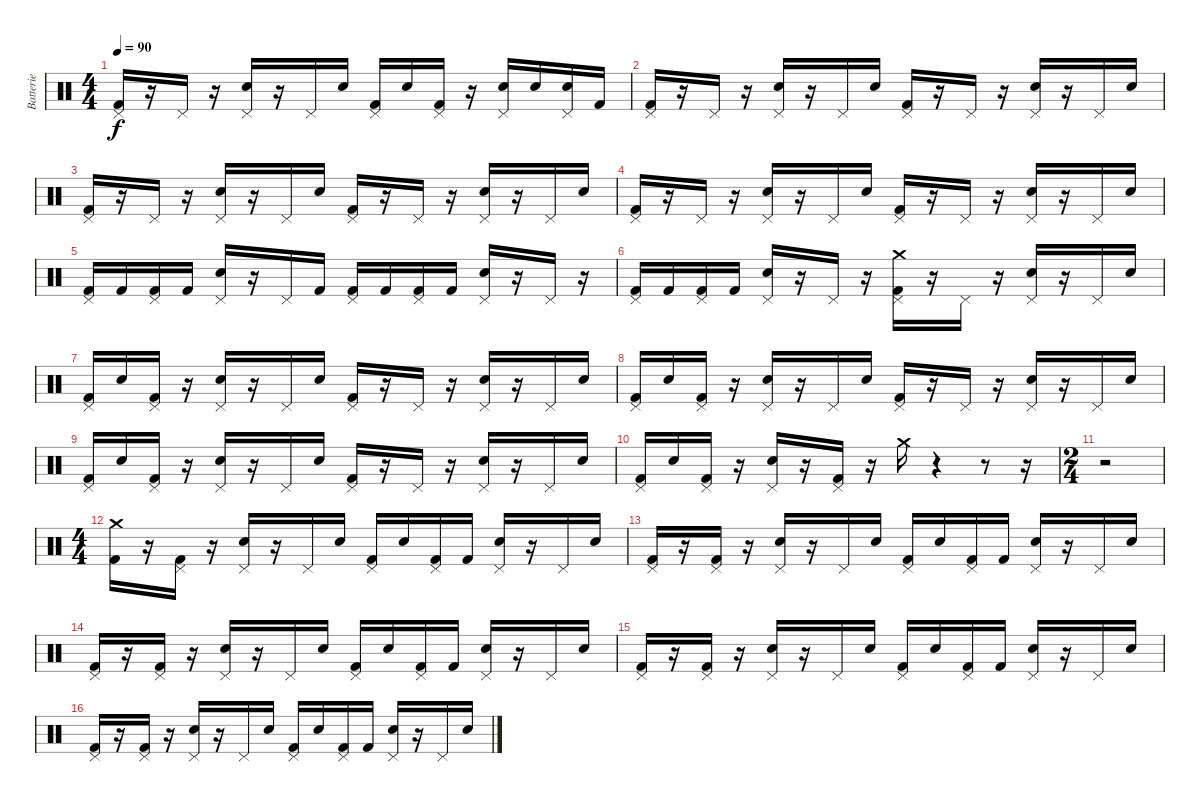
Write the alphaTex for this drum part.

\track ("Batterie" "Batterie") {instrument percussion}
\staff {score}
\articulation defaults
\ts (4 4)
\tempo 90
\clef neutral
\ks c
("Pedal Hi-Hat (hit)" "Kick (hit) 2").16{dy f} r.16 "Pedal Hi-Hat (hit)".16 r.16 ("Pedal Hi-Hat (hit)" "Electric Snare (hit)").16 r.16 "Pedal Hi-Hat (hit)".16 "Electric Snare (hit)".16 ("Pedal Hi-Hat (hit)" "Kick (hit) 2").16 "Electric Snare (hit)".16 ("Pedal Hi-Hat (hit)" "Kick (hit) 2").16 r.16 ("Pedal Hi-Hat (hit)" "Electric Snare (hit)").16 "Electric Snare (hit)".16 ("Pedal Hi-Hat (hit)" "Electric Snare (hit)").16 "Kick (hit) 2".16 |
("Pedal Hi-Hat (hit)" "Kick (hit) 2").16 r.16 "Pedal Hi-Hat (hit)".16 r.16 ("Pedal Hi-Hat (hit)" "Electric Snare (hit)").16 r.16 "Pedal Hi-Hat (hit)".16 "Electric Snare (hit)".16 ("Pedal Hi-Hat (hit)" "Kick (hit) 2").16 r.16 "Pedal Hi-Hat (hit)".16 r.16 ("Pedal Hi-Hat (hit)" "Electric Snare (hit)").16 r.16 "Pedal Hi-Hat (hit)".16 "Electric Snare (hit)".16 |
("Pedal Hi-Hat (hit)" "Kick (hit) 2").16 r.16 "Pedal Hi-Hat (hit)".16 r.16 ("Pedal Hi-Hat (hit)" "Electric Snare (hit)").16 r.16 "Pedal Hi-Hat (hit)".16 "Electric Snare (hit)".16 ("Pedal Hi-Hat (hit)" "Kick (hit) 2").16 r.16 "Pedal Hi-Hat (hit)".16 r.16 ("Pedal Hi-Hat (hit)" "Electric Snare (hit)").16 r.16 "Pedal Hi-Hat (hit)".16 "Electric Snare (hit)".16 |
("Pedal Hi-Hat (hit)" "Kick (hit) 2").16 r.16 "Pedal Hi-Hat (hit)".16 r.16 ("Pedal Hi-Hat (hit)" "Electric Snare (hit)").16 r.16 "Pedal Hi-Hat (hit)".16 "Electric Snare (hit)".16 ("Pedal Hi-Hat (hit)" "Kick (hit) 2").16 r.16 "Pedal Hi-Hat (hit)".16 r.16 ("Pedal Hi-Hat (hit)" "Electric Snare (hit)").16 r.16 "Pedal Hi-Hat (hit)".16 "Electric Snare (hit)".16 |
("Pedal Hi-Hat (hit)" "Kick (hit) 2").16 "Kick (hit) 2".16 ("Pedal Hi-Hat (hit)" "Kick (hit) 2").16 "Kick (hit) 2".16 ("Pedal Hi-Hat (hit)" "Electric Snare (hit)").16 r.16 "Pedal Hi-Hat (hit)".16 "Kick (hit) 2".16 ("Pedal Hi-Hat (hit)" "Kick (hit) 2").16 "Kick (hit) 2".16 ("Pedal Hi-Hat (hit)" "Kick (hit) 2").16 "Kick (hit) 2".16 ("Pedal Hi-Hat (hit)" "Electric Snare (hit)").16 r.16 "Pedal Hi-Hat (hit)".16 r.16 |
("Pedal Hi-Hat (hit)" "Kick (hit) 2").16 "Kick (hit) 2".16 ("Pedal Hi-Hat (hit)" "Kick (hit) 2").16 "Kick (hit) 2".16 ("Pedal Hi-Hat (hit)" "Electric Snare (hit)").16 r.16 "Pedal Hi-Hat (hit)".16 r.16 ("Pedal Hi-Hat (hit)" "Crash medium (hit)" "Kick (hit) 2").16 r.16 "Pedal Hi-Hat (hit)".16 r.16 ("Pedal Hi-Hat (hit)" "Electric Snare (hit)").16 r.16 "Pedal Hi-Hat (hit)".16 "Electric Snare (hit)".16 |
("Pedal Hi-Hat (hit)" "Kick (hit) 2").16 "Electric Snare (hit)".16 ("Pedal Hi-Hat (hit)" "Kick (hit) 2").16 r.16 ("Pedal Hi-Hat (hit)" "Electric Snare (hit)").16 r.16 "Pedal Hi-Hat (hit)".16 "Electric Snare (hit)".16 ("Pedal Hi-Hat (hit)" "Kick (hit) 2").16 r.16 "Pedal Hi-Hat (hit)".16 r.16 ("Pedal Hi-Hat (hit)" "Electric Snare (hit)").16 r.16 "Pedal Hi-Hat (hit)".16 "Electric Snare (hit)".16 |
("Pedal Hi-Hat (hit)" "Kick (hit) 2").16 "Electric Snare (hit)".16 ("Pedal Hi-Hat (hit)" "Kick (hit) 2").16 r.16 ("Pedal Hi-Hat (hit)" "Electric Snare (hit)").16 r.16 "Pedal Hi-Hat (hit)".16 "Electric Snare (hit)".16 ("Pedal Hi-Hat (hit)" "Kick (hit) 2").16 r.16 "Pedal Hi-Hat (hit)".16 r.16 ("Pedal Hi-Hat (hit)" "Electric Snare (hit)").16 r.16 "Pedal Hi-Hat (hit)".16 "Electric Snare (hit)".16 |
("Pedal Hi-Hat (hit)" "Kick (hit) 2").16 "Electric Snare (hit)".16 ("Pedal Hi-Hat (hit)" "Kick (hit) 2").16 r.16 ("Pedal Hi-Hat (hit)" "Electric Snare (hit)").16 r.16 "Pedal Hi-Hat (hit)".16 "Electric Snare (hit)".16 ("Pedal Hi-Hat (hit)" "Kick (hit) 2").16 r.16 "Pedal Hi-Hat (hit)".16 r.16 ("Pedal Hi-Hat (hit)" "Electric Snare (hit)").16 r.16 "Pedal Hi-Hat (hit)".16 "Electric Snare (hit)".16 |
("Pedal Hi-Hat (hit)" "Kick (hit) 2").16 "Electric Snare (hit)".16 ("Pedal Hi-Hat (hit)" "Kick (hit) 2").16 r.16 ("Pedal Hi-Hat (hit)" "Electric Snare (hit)").16 r.16 ("Pedal Hi-Hat (hit)" "Kick (hit) 2").16 r.16 "Crash medium (hit)".16 r.4 r.8 r.16 |
\ts (2 4)
r.2 |
\ts (4 4)
("Crash medium (hit)" "Kick (hit) 2").16 r.16 ("Pedal Hi-Hat (hit)" "Kick (hit) 2").16 r.16 ("Pedal Hi-Hat (hit)" "Electric Snare (hit)").16 r.16 "Pedal Hi-Hat (hit)".16 "Electric Snare (hit)".16 ("Pedal Hi-Hat (hit)" "Kick (hit) 2").16 "Electric Snare (hit)".16 ("Pedal Hi-Hat (hit)" "Kick (hit) 2").16 "Kick (hit) 2".16 ("Pedal Hi-Hat (hit)" "Electric Snare (hit)").16 r.16 "Pedal Hi-Hat (hit)".16 "Electric Snare (hit)".16 |
("Pedal Hi-Hat (hit)" "Kick (hit) 2").16 r.16 ("Pedal Hi-Hat (hit)" "Kick (hit) 2").16 r.16 ("Pedal Hi-Hat (hit)" "Electric Snare (hit)").16 r.16 "Pedal Hi-Hat (hit)".16 "Electric Snare (hit)".16 ("Pedal Hi-Hat (hit)" "Kick (hit) 2").16 "Electric Snare (hit)".16 ("Pedal Hi-Hat (hit)" "Kick (hit) 2").16 "Kick (hit) 2".16 ("Pedal Hi-Hat (hit)" "Electric Snare (hit)").16 r.16 "Pedal Hi-Hat (hit)".16 "Electric Snare (hit)".16 |
("Pedal Hi-Hat (hit)" "Kick (hit) 2").16 r.16 ("Pedal Hi-Hat (hit)" "Kick (hit) 2").16 r.16 ("Pedal Hi-Hat (hit)" "Electric Snare (hit)").16 r.16 "Pedal Hi-Hat (hit)".16 "Electric Snare (hit)".16 ("Pedal Hi-Hat (hit)" "Kick (hit) 2").16 "Electric Snare (hit)".16 ("Pedal Hi-Hat (hit)" "Kick (hit) 2").16 "Kick (hit) 2".16 ("Pedal Hi-Hat (hit)" "Electric Snare (hit)").16 r.16 "Pedal Hi-Hat (hit)".16 "Electric Snare (hit)".16 |
("Pedal Hi-Hat (hit)" "Kick (hit) 2").16 r.16 ("Pedal Hi-Hat (hit)" "Kick (hit) 2").16 r.16 ("Pedal Hi-Hat (hit)" "Electric Snare (hit)").16 r.16 "Pedal Hi-Hat (hit)".16 "Electric Snare (hit)".16 ("Pedal Hi-Hat (hit)" "Kick (hit) 2").16 "Electric Snare (hit)".16 ("Pedal Hi-Hat (hit)" "Kick (hit) 2").16 "Kick (hit) 2".16 ("Pedal Hi-Hat (hit)" "Electric Snare (hit)").16 r.16 "Pedal Hi-Hat (hit)".16 "Electric Snare (hit)".16 |
("Pedal Hi-Hat (hit)" "Kick (hit) 2").16 r.16 ("Pedal Hi-Hat (hit)" "Kick (hit) 2").16 r.16 ("Pedal Hi-Hat (hit)" "Electric Snare (hit)").16 r.16 "Pedal Hi-Hat (hit)".16 "Electric Snare (hit)".16 ("Pedal Hi-Hat (hit)" "Kick (hit) 2").16 "Electric Snare (hit)".16 ("Pedal Hi-Hat (hit)" "Kick (hit) 2").16 "Kick (hit) 2".16 ("Pedal Hi-Hat (hit)" "Electric Snare (hit)").16 r.16 "Pedal Hi-Hat (hit)".16 "Electric Snare (hit)".16
